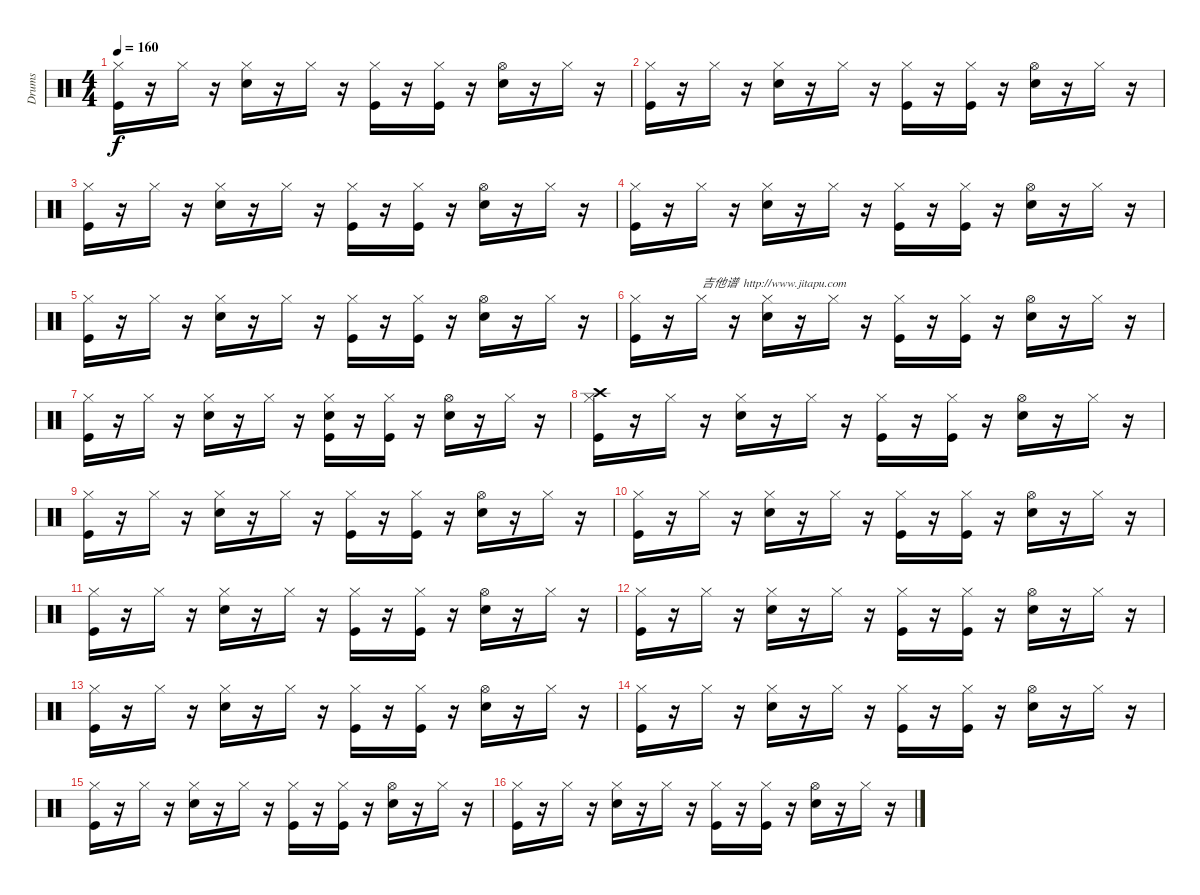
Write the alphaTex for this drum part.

\track ("Drums" "Drums") {instrument percussion}
\staff {score}
\articulation defaults
\ts (4 4)
\tempo 160
\clef neutral
\ks c
("Hi-Hat (closed)" "Kick (hit)").16{dy f} r.16 "Hi-Hat (closed)".16 r.16 ("Hi-Hat (closed)" "Snare (hit) 2").16 r.16 "Hi-Hat (closed)".16 r.16 ("Hi-Hat (closed)" "Kick (hit)").16 r.16 ("Kick (hit)" "Hi-Hat (closed)").16 r.16 ("Hi-Hat (open)" "Snare (hit) 2").16 r.16 "Hi-Hat (closed)".16 r.16 |
("Hi-Hat (closed)" "Kick (hit)").16 r.16 "Hi-Hat (closed)".16 r.16 ("Hi-Hat (closed)" "Snare (hit) 2").16 r.16 "Hi-Hat (closed)".16 r.16 ("Hi-Hat (closed)" "Kick (hit)").16 r.16 ("Kick (hit)" "Hi-Hat (closed)").16 r.16 ("Hi-Hat (open)" "Snare (hit) 2").16 r.16 "Hi-Hat (closed)".16 r.16 |
("Hi-Hat (closed)" "Kick (hit)").16 r.16 "Hi-Hat (closed)".16 r.16 ("Hi-Hat (closed)" "Snare (hit) 2").16 r.16 "Hi-Hat (closed)".16 r.16 ("Hi-Hat (closed)" "Kick (hit)").16 r.16 ("Kick (hit)" "Hi-Hat (closed)").16 r.16 ("Hi-Hat (open)" "Snare (hit) 2").16 r.16 "Hi-Hat (closed)".16 r.16 |
("Hi-Hat (closed)" "Kick (hit)").16 r.16 "Hi-Hat (closed)".16 r.16 ("Hi-Hat (closed)" "Snare (hit) 2").16 r.16 "Hi-Hat (closed)".16 r.16 ("Hi-Hat (closed)" "Kick (hit)").16 r.16 ("Kick (hit)" "Hi-Hat (closed)").16 r.16 ("Hi-Hat (open)" "Snare (hit) 2").16 r.16 "Hi-Hat (closed)".16 r.16 |
("Hi-Hat (closed)" "Kick (hit)").16 r.16 "Hi-Hat (closed)".16 r.16 ("Hi-Hat (closed)" "Snare (hit) 2").16 r.16 "Hi-Hat (closed)".16 r.16 ("Hi-Hat (closed)" "Kick (hit)").16 r.16 ("Kick (hit)" "Hi-Hat (closed)").16 r.16 ("Hi-Hat (open)" "Snare (hit) 2").16 r.16 "Hi-Hat (closed)".16 r.16 |
("Hi-Hat (closed)" "Kick (hit)").16 r.16 "Hi-Hat (closed)".16{txt "吉他谱  http://www.jitapu.com"} r.16 ("Hi-Hat (closed)" "Snare (hit) 2").16 r.16 "Hi-Hat (closed)".16 r.16 ("Hi-Hat (closed)" "Kick (hit)").16 r.16 ("Kick (hit)" "Hi-Hat (closed)").16 r.16 ("Hi-Hat (open)" "Snare (hit) 2").16 r.16 "Hi-Hat (closed)".16 r.16 |
("Hi-Hat (closed)" "Kick (hit)").16 r.16 "Hi-Hat (closed)".16 r.16 ("Hi-Hat (closed)" "Snare (hit) 2").16 r.16 "Hi-Hat (closed)".16 r.16 ("Snare (hit) 2" "Hi-Hat (closed)" "Kick (hit)").16 r.16 ("Kick (hit)" "Hi-Hat (closed)").16 r.16 ("Hi-Hat (open)" "Snare (hit) 2").16 r.16 "Hi-Hat (closed)".16 r.16 |
("Crash high (hit)" "Hi-Hat (closed)" "Kick (hit)").16 r.16 "Hi-Hat (closed)".16 r.16 ("Hi-Hat (closed)" "Snare (hit) 2").16 r.16 "Hi-Hat (closed)".16 r.16 ("Hi-Hat (closed)" "Kick (hit)").16 r.16 ("Kick (hit)" "Hi-Hat (closed)").16 r.16 ("Hi-Hat (open)" "Snare (hit) 2").16 r.16 "Hi-Hat (closed)".16 r.16 |
("Hi-Hat (closed)" "Kick (hit)").16 r.16 "Hi-Hat (closed)".16 r.16 ("Hi-Hat (closed)" "Snare (hit) 2").16 r.16 "Hi-Hat (closed)".16 r.16 ("Hi-Hat (closed)" "Kick (hit)").16 r.16 ("Kick (hit)" "Hi-Hat (closed)").16 r.16 ("Hi-Hat (open)" "Snare (hit) 2").16 r.16 "Hi-Hat (closed)".16 r.16 |
("Hi-Hat (closed)" "Kick (hit)").16 r.16 "Hi-Hat (closed)".16 r.16 ("Hi-Hat (closed)" "Snare (hit) 2").16 r.16 "Hi-Hat (closed)".16 r.16 ("Hi-Hat (closed)" "Kick (hit)").16 r.16 ("Kick (hit)" "Hi-Hat (closed)").16 r.16 ("Hi-Hat (open)" "Snare (hit) 2").16 r.16 "Hi-Hat (closed)".16 r.16 |
("Hi-Hat (closed)" "Kick (hit)").16 r.16 "Hi-Hat (closed)".16 r.16 ("Hi-Hat (closed)" "Snare (hit) 2").16 r.16 "Hi-Hat (closed)".16 r.16 ("Hi-Hat (closed)" "Kick (hit)").16 r.16 ("Kick (hit)" "Hi-Hat (closed)").16 r.16 ("Hi-Hat (open)" "Snare (hit) 2").16 r.16 "Hi-Hat (closed)".16 r.16 |
("Hi-Hat (closed)" "Kick (hit)").16 r.16 "Hi-Hat (closed)".16 r.16 ("Hi-Hat (closed)" "Snare (hit) 2").16 r.16 "Hi-Hat (closed)".16 r.16 ("Hi-Hat (closed)" "Kick (hit)").16 r.16 ("Kick (hit)" "Hi-Hat (closed)").16 r.16 ("Hi-Hat (open)" "Snare (hit) 2").16 r.16 "Hi-Hat (closed)".16 r.16 |
("Hi-Hat (closed)" "Kick (hit)").16 r.16 "Hi-Hat (closed)".16 r.16 ("Hi-Hat (closed)" "Snare (hit) 2").16 r.16 "Hi-Hat (closed)".16 r.16 ("Hi-Hat (closed)" "Kick (hit)").16 r.16 ("Kick (hit)" "Hi-Hat (closed)").16 r.16 ("Hi-Hat (open)" "Snare (hit) 2").16 r.16 "Hi-Hat (closed)".16 r.16 |
("Hi-Hat (closed)" "Kick (hit)").16 r.16 "Hi-Hat (closed)".16 r.16 ("Hi-Hat (closed)" "Snare (hit) 2").16 r.16 "Hi-Hat (closed)".16 r.16 ("Hi-Hat (closed)" "Kick (hit)").16 r.16 ("Kick (hit)" "Hi-Hat (closed)").16 r.16 ("Hi-Hat (open)" "Snare (hit) 2").16 r.16 "Hi-Hat (closed)".16 r.16 |
("Hi-Hat (closed)" "Kick (hit)").16 r.16 "Hi-Hat (closed)".16 r.16 ("Hi-Hat (closed)" "Snare (hit) 2").16 r.16 "Hi-Hat (closed)".16 r.16 ("Hi-Hat (closed)" "Kick (hit)").16 r.16 ("Kick (hit)" "Hi-Hat (closed)").16 r.16 ("Hi-Hat (open)" "Snare (hit) 2").16 r.16 "Hi-Hat (closed)".16 r.16 |
("Hi-Hat (closed)" "Kick (hit)").16 r.16 "Hi-Hat (closed)".16 r.16 ("Hi-Hat (closed)" "Snare (hit) 2").16 r.16 "Hi-Hat (closed)".16 r.16 ("Hi-Hat (closed)" "Kick (hit)").16 r.16 ("Kick (hit)" "Hi-Hat (closed)").16 r.16 ("Hi-Hat (open)" "Snare (hit) 2").16 r.16 "Hi-Hat (closed)".16 r.16
